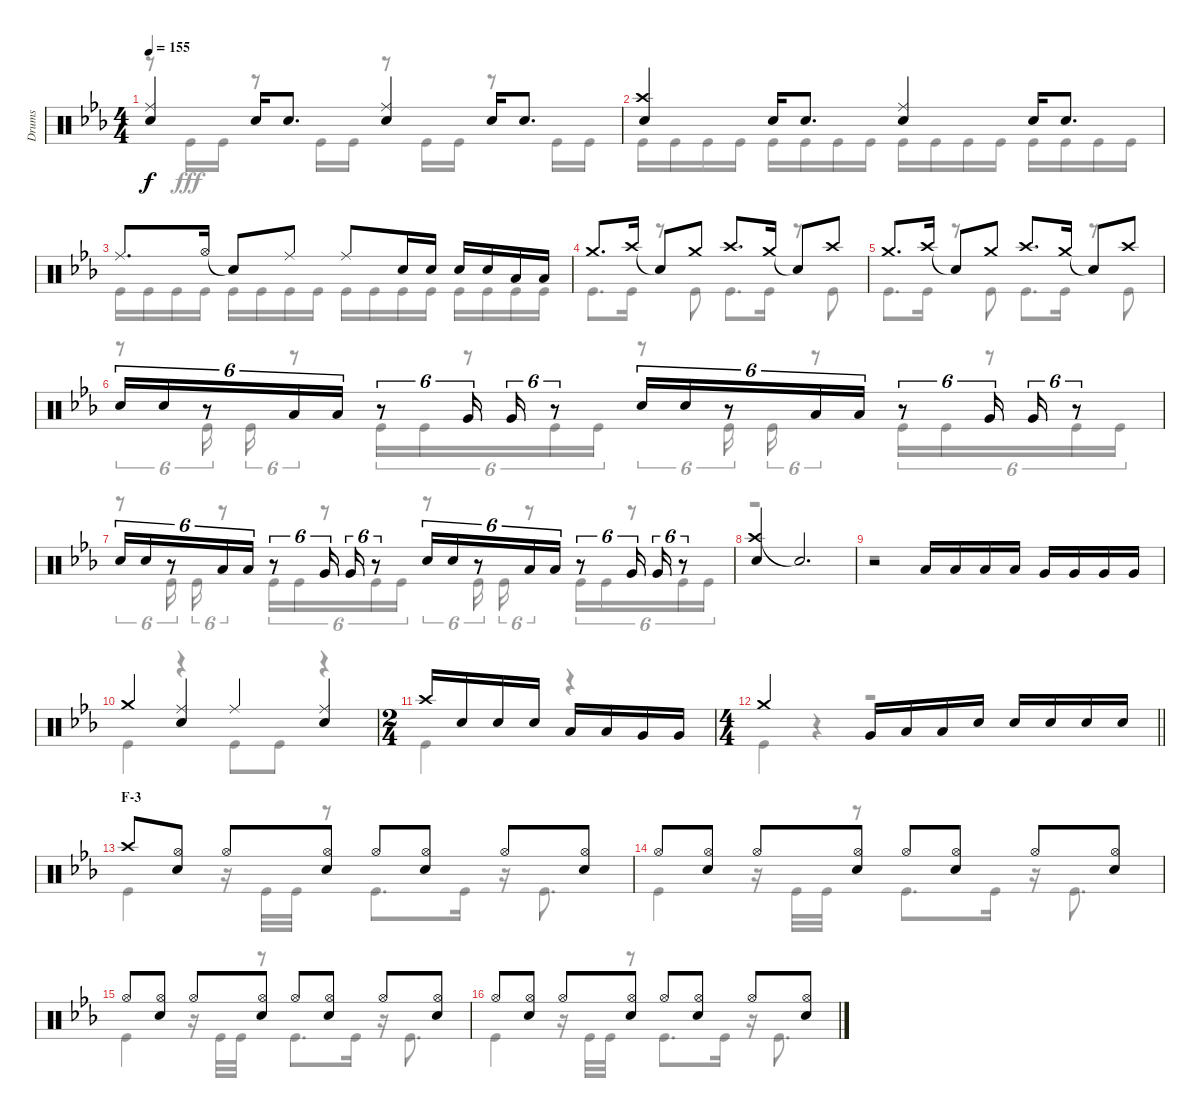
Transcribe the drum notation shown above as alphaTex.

\track ("Drums" "Drums") {instrument percussion}
\staff {score}
\articulation defaults
\voice
\ts (4 4)
\tempo 155
\clef neutral
\ks eb
("Ride (middle)" "Snare (hit) 2").4{dy f} "Snare (hit) 2".16 "Snare (hit) 2".8{d} ("Ride (middle)" "Snare (hit) 2").4 "Snare (hit) 2".16 "Snare (hit) 2".8{d} |
("Crash high (hit)" "Snare (hit) 2").4 "Snare (hit) 2".16 "Snare (hit) 2".8{d} ("Ride (middle)" "Snare (hit) 2").4 "Snare (hit) 2".16 "Snare (hit) 2".8{d} |
"Ride (middle)".8{d} "Hi-Hat (open)".16 "Snare (hit)"{t}.8 "Ride (middle)".8 "Ride (middle)".8 "Snare (hit) 2".16 "Snare (hit) 2".16 "Snare (hit) 2".16 "Snare (hit) 2".16 "Low Tom (hit)".16 "Low Tom (hit)".16 |
"Crash medium (hit)".8{d} "Crash high (hit)".16 "Snare (hit)"{t}.8 "Crash medium (hit)".8 "Crash high (hit)".8{d} "Crash medium (hit)".16 "Snare (hit)"{t}.8 "Crash high (hit)".8 |
"Crash medium (hit)".8{d} "Crash high (hit)".16 "Snare (hit)"{t}.8 "Crash medium (hit)".8 "Crash high (hit)".8{d} "Crash medium (hit)".16 "Snare (hit)"{t}.8 "Crash high (hit)".8 |
"Snare (hit) 2".16{tu (6 4)} "Snare (hit) 2".16{tu (6 4)} r.8{tu (6 4)} "Low Tom (hit)".16{tu (6 4)} "Low Tom (hit)".16{tu (6 4)} r.8{tu (6 4)} "Very Low Tom (hit)".16{tu (6 4)} "Very Low Tom (hit)".16{tu (6 4)} r.8{tu (6 4)} "Snare (hit) 2".16{tu (6 4)} "Snare (hit) 2".16{tu (6 4)} r.8{tu (6 4)} "Low Tom (hit)".16{tu (6 4)} "Low Tom (hit)".16{tu (6 4)} r.8{tu (6 4)} "Very Low Tom (hit)".16{tu (6 4)} "Very Low Tom (hit)".16{tu (6 4)} r.8{tu (6 4)} |
"Snare (hit) 2".16{tu (6 4)} "Snare (hit) 2".16{tu (6 4)} r.8{tu (6 4)} "Low Tom (hit)".16{tu (6 4)} "Low Tom (hit)".16{tu (6 4)} r.8{tu (6 4)} "Very Low Tom (hit)".16{tu (6 4)} "Very Low Tom (hit)".16{tu (6 4)} r.8{tu (6 4)} "Snare (hit) 2".16{tu (6 4)} "Snare (hit) 2".16{tu (6 4)} r.8{tu (6 4)} "Low Tom (hit)".16{tu (6 4)} "Low Tom (hit)".16{tu (6 4)} r.8{tu (6 4)} "Very Low Tom (hit)".16{tu (6 4)} "Very Low Tom (hit)".16{tu (6 4)} r.8{tu (6 4)} |
("Crash high (hit)" "Snare (hit) 2").4 "Snare (hit)"{t}.2{d} |
r.2 "Low Tom (hit)".16 "Low Tom (hit)".16 "Low Tom (hit)".16 "Low Tom (hit)".16 "Very Low Tom (hit)".16 "Very Low Tom (hit)".16 "Very Low Tom (hit)".16 "Very Low Tom (hit)".16 |
"Crash medium (hit)".4 ("Ride (middle)" "Snare (hit) 2").4 "Ride (middle)".4 ("Ride (middle)" "Snare (hit) 2").4 |
\ts (2 4)
"Crash high (hit)".16 "Snare (hit) 2".16 "Snare (hit) 2".16 "Snare (hit) 2".16 "Low Tom (hit)".16 "Low Tom (hit)".16 "Very Low Tom (hit)".16 "Very Low Tom (hit)".16 |
\ts (4 4)
\barLineRight lightlight "Crash medium (hit)".2 "Very Low Tom (hit)".16 "Low Tom (hit)".16 "Low Tom (hit)".16 "Snare (hit) 2".16 "Snare (hit) 2".16 "Snare (hit) 2".16 "Snare (hit) 2".16 "Snare (hit) 2".16
|
\section ("" "F-3")
"Crash high (hit)".8 ("Hi-Hat (open)" "Snare (hit) 2").8 "Hi-Hat (open)".8 ("Hi-Hat (open)" "Snare (hit) 2").8 "Hi-Hat (open)".8 ("Hi-Hat (open)" "Snare (hit) 2").8 "Hi-Hat (open)".8 ("Hi-Hat (open)" "Snare (hit) 2").8 |
"Hi-Hat (open)".8 ("Hi-Hat (open)" "Snare (hit) 2").8 "Hi-Hat (open)".8 ("Hi-Hat (open)" "Snare (hit) 2").8 "Hi-Hat (open)".8 ("Hi-Hat (open)" "Snare (hit) 2").8 "Hi-Hat (open)".8 ("Hi-Hat (open)" "Snare (hit) 2").8 |
"Hi-Hat (open)".8 ("Hi-Hat (open)" "Snare (hit) 2").8 "Hi-Hat (open)".8 ("Hi-Hat (open)" "Snare (hit) 2").8 "Hi-Hat (open)".8 ("Hi-Hat (open)" "Snare (hit) 2").8 "Hi-Hat (open)".8 ("Hi-Hat (open)" "Snare (hit) 2").8 |
"Hi-Hat (open)".8 ("Hi-Hat (open)" "Snare (hit) 2").8 "Hi-Hat (open)".8 ("Hi-Hat (open)" "Snare (hit) 2").8 "Hi-Hat (open)".8 ("Hi-Hat (open)" "Snare (hit) 2").8 "Hi-Hat (open)".8 ("Hi-Hat (open)" "Snare (hit) 2").8
\voice
\clef neutral
\ottava regular
\simile none
\ks eb
r.8{dy fff} "Kick (hit)".16 "Kick (hit)".16 r.8 "Kick (hit)".16 "Kick (hit)".16 r.8 "Kick (hit)".16 "Kick (hit)".16 r.8 "Kick (hit)".16 "Kick (hit)".16 |
"Kick (hit)".16 "Kick (hit)".16 "Kick (hit)".16 "Kick (hit)".16 "Kick (hit)".16 "Kick (hit)".16 "Kick (hit)".16 "Kick (hit)".16 "Kick (hit)".16 "Kick (hit)".16 "Kick (hit)".16 "Kick (hit)".16 "Kick (hit)".16 "Kick (hit)".16 "Kick (hit)".16 "Kick (hit)".16 |
"Kick (hit)".16 "Kick (hit)".16 "Kick (hit)".16 "Kick (hit)".16 "Kick (hit)".16 "Kick (hit)".16 "Kick (hit)".16 "Kick (hit)".16 "Kick (hit)".16 "Kick (hit)".16 "Kick (hit)".16 "Kick (hit)".16 "Kick (hit)".16 "Kick (hit)".16 "Kick (hit)".16 "Kick (hit)".16 |
"Kick (hit)".8{d} "Kick (hit)".16 r.8 "Kick (hit)".8 "Kick (hit)".8{d} "Kick (hit)".16 r.8 "Kick (hit)".8 |
"Kick (hit)".8{d} "Kick (hit)".16 r.8 "Kick (hit)".8 "Kick (hit)".8{d} "Kick (hit)".16 r.8 "Kick (hit)".8 |
r.8{tu (6 4)} "Kick (hit)".16{tu (6 4)} "Kick (hit)".16{tu (6 4)} r.8{tu (6 4)} "Kick (hit)".16{tu (6 4)} "Kick (hit)".16{tu (6 4)} r.8{tu (6 4)} "Kick (hit)".16{tu (6 4)} "Kick (hit)".16{tu (6 4)} r.8{tu (6 4)} "Kick (hit)".16{tu (6 4)} "Kick (hit)".16{tu (6 4)} r.8{tu (6 4)} "Kick (hit)".16{tu (6 4)} "Kick (hit)".16{tu (6 4)} r.8{tu (6 4)} "Kick (hit)".16{tu (6 4)} "Kick (hit)".16{tu (6 4)} |
r.8{tu (6 4)} "Kick (hit)".16{tu (6 4)} "Kick (hit)".16{tu (6 4)} r.8{tu (6 4)} "Kick (hit)".16{tu (6 4)} "Kick (hit)".16{tu (6 4)} r.8{tu (6 4)} "Kick (hit)".16{tu (6 4)} "Kick (hit)".16{tu (6 4)} r.8{tu (6 4)} "Kick (hit)".16{tu (6 4)} "Kick (hit)".16{tu (6 4)} r.8{tu (6 4)} "Kick (hit)".16{tu (6 4)} "Kick (hit)".16{tu (6 4)} r.8{tu (6 4)} "Kick (hit)".16{tu (6 4)} "Kick (hit)".16{tu (6 4)} |
r.1 |
r.1 |
"Kick (hit)".4 r.4 "Kick (hit)".8 "Kick (hit)".8 r.4 |
"Kick (hit)".4 r.4 |
\barLineRight lightlight "Kick (hit)".4
r.4 r.2 |
"Kick (hit)".4 r.16 "Kick (hit)".32 "Kick (hit)".32 r.8 "Kick (hit)".8{d} "Kick (hit)".16 r.16 "Kick (hit)".8{d} |
"Kick (hit)".4 r.16 "Kick (hit)".32 "Kick (hit)".32 r.8 "Kick (hit)".8{d} "Kick (hit)".16 r.16 "Kick (hit)".8{d} |
"Kick (hit)".4 r.16 "Kick (hit)".32 "Kick (hit)".32 r.8 "Kick (hit)".8{d} "Kick (hit)".16 r.16 "Kick (hit)".8{d} |
"Kick (hit)".4 r.16 "Kick (hit)".32 "Kick (hit)".32 r.8 "Kick (hit)".8{d} "Kick (hit)".16 r.16 "Kick (hit)".8{d}
